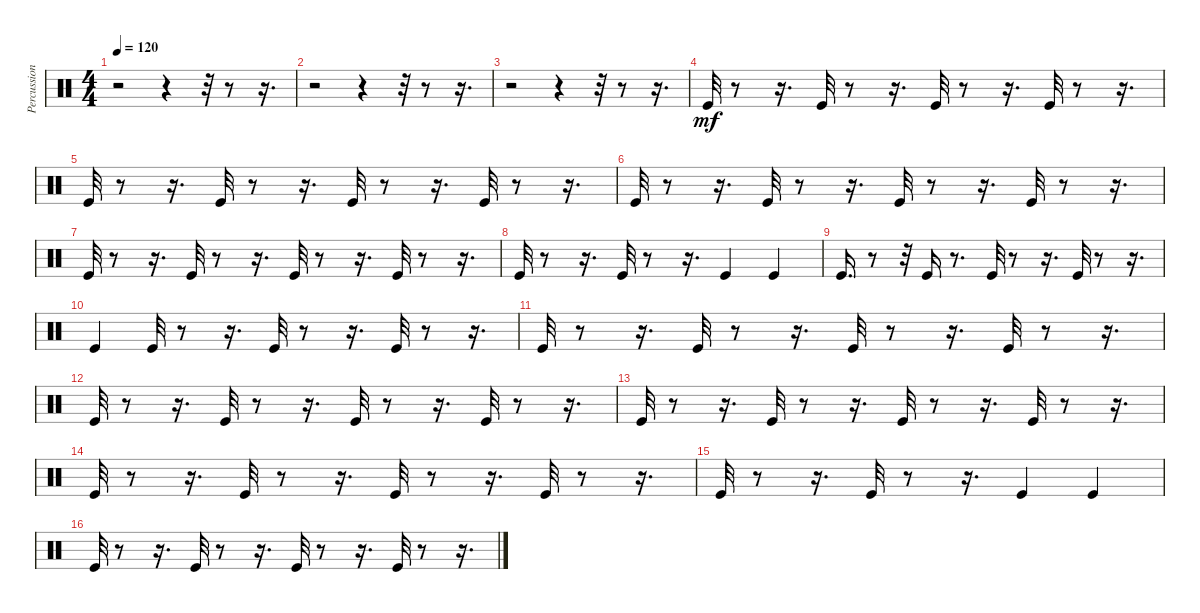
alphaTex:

\track ("Percussion" "Percussion") {instrument percussion}
\staff {score}
\articulation defaults
\ts (4 4)
\tempo 120
\clef neutral
\ks c
r.2{dy mf} r.4 r.32 r.8 r.16{d} |
r.2 r.4 r.32 r.8 r.16{d} |
r.2 r.4 r.32 r.8 r.16{d} |
"Kick (hit)".32 r.8 r.16{d} "Kick (hit)".32 r.8 r.16{d} "Kick (hit)".32 r.8 r.16{d} "Kick (hit)".32 r.8 r.16{d} |
"Kick (hit)".32 r.8 r.16{d} "Kick (hit)".32 r.8 r.16{d} "Kick (hit)".32 r.8 r.16{d} "Kick (hit)".32 r.8 r.16{d} |
"Kick (hit)".32 r.8 r.16{d} "Kick (hit)".32 r.8 r.16{d} "Kick (hit)".32 r.8 r.16{d} "Kick (hit)".32 r.8 r.16{d} |
"Kick (hit)".32 r.8 r.16{d} "Kick (hit)".32 r.8 r.16{d} "Kick (hit)".32 r.8 r.16{d} "Kick (hit)".32 r.8 r.16{d} |
"Kick (hit)".32 r.8 r.16{d} "Kick (hit)".32 r.8 r.16{d} "Kick (hit)".4 "Kick (hit)".4 |
"Kick (hit)".16{d} r.8 r.32 "Kick (hit)".16 r.8{d} "Kick (hit)".32 r.8 r.16{d} "Kick (hit)".32 r.8 r.16{d} |
"Kick (hit)".4 "Kick (hit)".32 r.8 r.16{d} "Kick (hit)".32 r.8 r.16{d} "Kick (hit)".32 r.8 r.16{d} |
"Kick (hit)".32 r.8 r.16{d} "Kick (hit)".32 r.8 r.16{d} "Kick (hit)".32 r.8 r.16{d} "Kick (hit)".32 r.8 r.16{d} |
"Kick (hit)".32 r.8 r.16{d} "Kick (hit)".32 r.8 r.16{d} "Kick (hit)".32 r.8 r.16{d} "Kick (hit)".32 r.8 r.16{d} |
"Kick (hit)".32 r.8 r.16{d} "Kick (hit)".32 r.8 r.16{d} "Kick (hit)".32 r.8 r.16{d} "Kick (hit)".32 r.8 r.16{d} |
"Kick (hit)".32 r.8 r.16{d} "Kick (hit)".32 r.8 r.16{d} "Kick (hit)".32 r.8 r.16{d} "Kick (hit)".32 r.8 r.16{d} |
"Kick (hit)".32 r.8 r.16{d} "Kick (hit)".32 r.8 r.16{d} "Kick (hit)".4 "Kick (hit)".4 |
"Kick (hit)".32 r.8 r.16{d} "Kick (hit)".32 r.8 r.16{d} "Kick (hit)".32 r.8 r.16{d} "Kick (hit)".32 r.8 r.16{d}
